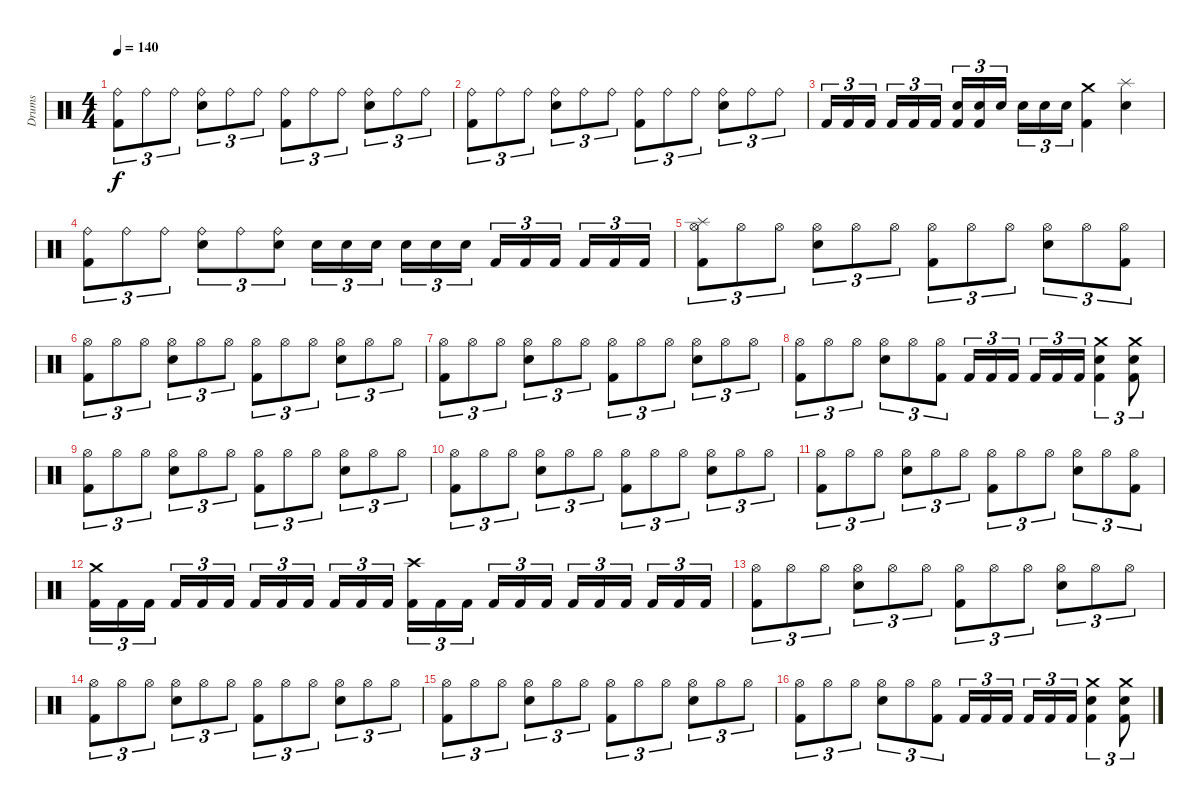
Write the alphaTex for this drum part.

\track ("Drums" "Drums") {instrument percussion}
\staff {score}
\articulation defaults
\ts (4 4)
\tempo 140
\clef neutral
\ks c
("Ride (bell)" "Kick (hit) 2").8{tu (3 2) dy f} "Ride (bell)".8{tu (3 2)} "Ride (bell)".8{tu (3 2)} ("Ride (bell)" "Electric Snare (hit)").8{tu (3 2)} "Ride (bell)".8{tu (3 2)} "Ride (bell)".8{tu (3 2)} ("Ride (bell)" "Kick (hit) 2").8{tu (3 2)} "Ride (bell)".8{tu (3 2)} "Ride (bell)".8{tu (3 2)} ("Ride (bell)" "Electric Snare (hit)").8{tu (3 2)} "Ride (bell)".8{tu (3 2)} "Ride (bell)".8{tu (3 2)} |
("Ride (bell)" "Kick (hit) 2").8{tu (3 2)} "Ride (bell)".8{tu (3 2)} "Ride (bell)".8{tu (3 2)} ("Ride (bell)" "Electric Snare (hit)").8{tu (3 2)} "Ride (bell)".8{tu (3 2)} "Ride (bell)".8{tu (3 2)} ("Ride (bell)" "Kick (hit) 2").8{tu (3 2)} "Ride (bell)".8{tu (3 2)} "Ride (bell)".8{tu (3 2)} ("Ride (bell)" "Electric Snare (hit)").8{tu (3 2)} "Ride (bell)".8{tu (3 2)} "Ride (bell)".8{tu (3 2)} |
"Kick (hit) 2".16{tu (3 2)} "Kick (hit) 2".16{tu (3 2)} "Kick (hit) 2".16{tu (3 2)} "Kick (hit) 2".16{tu (3 2)} "Kick (hit) 2".16{tu (3 2)} "Kick (hit) 2".16{tu (3 2)} ("Electric Snare (hit)" "Kick (hit) 2").16{tu (3 2)} ("Electric Snare (hit)" "Kick (hit) 2").16{tu (3 2)} "Electric Snare (hit)".16{tu (3 2)} "Electric Snare (hit)".16{tu (3 2)} "Electric Snare (hit)".16{tu (3 2)} "Electric Snare (hit)".16{tu (3 2)} ("Crash medium (hit)" "Kick (hit) 2").4 ("Splash (hit)" "Electric Snare (hit)").4 |
("Ride (bell)" "Kick (hit) 2").8{tu (3 2)} "Ride (bell)".8{tu (3 2)} "Ride (bell)".8{tu (3 2)} ("Ride (bell)" "Electric Snare (hit)").8{tu (3 2)} "Ride (bell)".8{tu (3 2)} ("Ride (bell)" "Electric Snare (hit)").8{tu (3 2)} "Electric Snare (hit)".16{tu (3 2)} "Electric Snare (hit)".16{tu (3 2)} "Electric Snare (hit)".16{tu (3 2)} "Electric Snare (hit)".16{tu (3 2)} "Electric Snare (hit)".16{tu (3 2)} "Electric Snare (hit)".16{tu (3 2)} "Kick (hit) 2".16{tu (3 2)} "Kick (hit) 2".16{tu (3 2)} "Kick (hit) 2".16{tu (3 2)} "Kick (hit) 2".16{tu (3 2)} "Kick (hit) 2".16{tu (3 2)} "Kick (hit) 2".16{tu (3 2)} |
("Splash (hit)" "Hi-Hat (open)" "Kick (hit) 2").8{tu (3 2)} "Hi-Hat (open)".8{tu (3 2)} "Hi-Hat (open)".8{tu (3 2)} ("Hi-Hat (open)" "Electric Snare (hit)").8{tu (3 2)} "Hi-Hat (open)".8{tu (3 2)} "Hi-Hat (open)".8{tu (3 2)} ("Hi-Hat (open)" "Kick (hit) 2").8{tu (3 2)} "Hi-Hat (open)".8{tu (3 2)} "Hi-Hat (open)".8{tu (3 2)} ("Hi-Hat (open)" "Electric Snare (hit)").8{tu (3 2)} "Hi-Hat (open)".8{tu (3 2)} ("Hi-Hat (open)" "Kick (hit) 2").8{tu (3 2)} |
("Hi-Hat (open)" "Kick (hit) 2").8{tu (3 2)} "Hi-Hat (open)".8{tu (3 2)} "Hi-Hat (open)".8{tu (3 2)} ("Hi-Hat (open)" "Electric Snare (hit)").8{tu (3 2)} "Hi-Hat (open)".8{tu (3 2)} "Hi-Hat (open)".8{tu (3 2)} ("Hi-Hat (open)" "Kick (hit) 2").8{tu (3 2)} "Hi-Hat (open)".8{tu (3 2)} "Hi-Hat (open)".8{tu (3 2)} ("Hi-Hat (open)" "Electric Snare (hit)").8{tu (3 2)} "Hi-Hat (open)".8{tu (3 2)} "Hi-Hat (open)".8{tu (3 2)} |
("Hi-Hat (open)" "Kick (hit) 2").8{tu (3 2)} "Hi-Hat (open)".8{tu (3 2)} "Hi-Hat (open)".8{tu (3 2)} ("Hi-Hat (open)" "Electric Snare (hit)").8{tu (3 2)} "Hi-Hat (open)".8{tu (3 2)} "Hi-Hat (open)".8{tu (3 2)} ("Hi-Hat (open)" "Kick (hit) 2").8{tu (3 2)} "Hi-Hat (open)".8{tu (3 2)} "Hi-Hat (open)".8{tu (3 2)} ("Hi-Hat (open)" "Electric Snare (hit)").8{tu (3 2)} "Hi-Hat (open)".8{tu (3 2)} "Hi-Hat (open)".8{tu (3 2)} |
("Hi-Hat (open)" "Kick (hit) 2").8{tu (3 2)} "Hi-Hat (open)".8{tu (3 2)} "Hi-Hat (open)".8{tu (3 2)} ("Hi-Hat (open)" "Electric Snare (hit)").8{tu (3 2)} "Hi-Hat (open)".8{tu (3 2)} ("Hi-Hat (open)" "Kick (hit) 2").8{tu (3 2)} "Kick (hit) 2".16{tu (3 2)} "Kick (hit) 2".16{tu (3 2)} "Kick (hit) 2".16{tu (3 2)} "Kick (hit) 2".16{tu (3 2)} "Kick (hit) 2".16{tu (3 2)} "Kick (hit) 2".16{tu (3 2)} ("Crash medium (hit)" "Electric Snare (hit)" "Kick (hit) 2").4{tu (3 2)} ("Crash medium (hit)" "Electric Snare (hit)" "Kick (hit) 2").8{tu (3 2)} |
("Hi-Hat (open)" "Kick (hit) 2").8{tu (3 2)} "Hi-Hat (open)".8{tu (3 2)} "Hi-Hat (open)".8{tu (3 2)} ("Hi-Hat (open)" "Electric Snare (hit)").8{tu (3 2)} "Hi-Hat (open)".8{tu (3 2)} "Hi-Hat (open)".8{tu (3 2)} ("Hi-Hat (open)" "Kick (hit) 2").8{tu (3 2)} "Hi-Hat (open)".8{tu (3 2)} "Hi-Hat (open)".8{tu (3 2)} ("Hi-Hat (open)" "Electric Snare (hit)").8{tu (3 2)} "Hi-Hat (open)".8{tu (3 2)} "Hi-Hat (open)".8{tu (3 2)} |
("Hi-Hat (open)" "Kick (hit) 2").8{tu (3 2)} "Hi-Hat (open)".8{tu (3 2)} "Hi-Hat (open)".8{tu (3 2)} ("Hi-Hat (open)" "Electric Snare (hit)").8{tu (3 2)} "Hi-Hat (open)".8{tu (3 2)} "Hi-Hat (open)".8{tu (3 2)} ("Hi-Hat (open)" "Kick (hit) 2").8{tu (3 2)} "Hi-Hat (open)".8{tu (3 2)} "Hi-Hat (open)".8{tu (3 2)} ("Hi-Hat (open)" "Electric Snare (hit)").8{tu (3 2)} "Hi-Hat (open)".8{tu (3 2)} "Hi-Hat (open)".8{tu (3 2)} |
("Hi-Hat (open)" "Kick (hit) 2").8{tu (3 2)} "Hi-Hat (open)".8{tu (3 2)} "Hi-Hat (open)".8{tu (3 2)} ("Hi-Hat (open)" "Electric Snare (hit)").8{tu (3 2)} "Hi-Hat (open)".8{tu (3 2)} "Hi-Hat (open)".8{tu (3 2)} ("Hi-Hat (open)" "Kick (hit) 2").8{tu (3 2)} "Hi-Hat (open)".8{tu (3 2)} "Hi-Hat (open)".8{tu (3 2)} ("Hi-Hat (open)" "Electric Snare (hit)").8{tu (3 2)} "Hi-Hat (open)".8{tu (3 2)} ("Hi-Hat (open)" "Kick (hit) 2").8{tu (3 2)} |
("Crash medium (hit)" "Kick (hit) 2").16{tu (3 2)} "Kick (hit) 2".16{tu (3 2)} "Kick (hit) 2".16{tu (3 2)} "Kick (hit) 2".16{tu (3 2)} "Kick (hit) 2".16{tu (3 2)} "Kick (hit) 2".16{tu (3 2)} "Kick (hit) 2".16{tu (3 2)} "Kick (hit) 2".16{tu (3 2)} "Kick (hit) 2".16{tu (3 2)} "Kick (hit) 2".16{tu (3 2)} "Kick (hit) 2".16{tu (3 2)} "Kick (hit) 2".16{tu (3 2)} ("Crash high (hit)" "Kick (hit) 2").16{tu (3 2)} "Kick (hit) 2".16{tu (3 2)} "Kick (hit) 2".16{tu (3 2)} "Kick (hit) 2".16{tu (3 2)} "Kick (hit) 2".16{tu (3 2)} "Kick (hit) 2".16{tu (3 2)} "Kick (hit) 2".16{tu (3 2)} "Kick (hit) 2".16{tu (3 2)} "Kick (hit) 2".16{tu (3 2)} "Kick (hit) 2".16{tu (3 2)} "Kick (hit) 2".16{tu (3 2)} "Kick (hit) 2".16{tu (3 2)} |
("Hi-Hat (open)" "Kick (hit) 2").8{tu (3 2)} "Hi-Hat (open)".8{tu (3 2)} "Hi-Hat (open)".8{tu (3 2)} ("Hi-Hat (open)" "Electric Snare (hit)").8{tu (3 2)} "Hi-Hat (open)".8{tu (3 2)} "Hi-Hat (open)".8{tu (3 2)} ("Hi-Hat (open)" "Kick (hit) 2").8{tu (3 2)} "Hi-Hat (open)".8{tu (3 2)} "Hi-Hat (open)".8{tu (3 2)} ("Hi-Hat (open)" "Electric Snare (hit)").8{tu (3 2)} "Hi-Hat (open)".8{tu (3 2)} "Hi-Hat (open)".8{tu (3 2)} |
("Hi-Hat (open)" "Kick (hit) 2").8{tu (3 2)} "Hi-Hat (open)".8{tu (3 2)} "Hi-Hat (open)".8{tu (3 2)} ("Hi-Hat (open)" "Electric Snare (hit)").8{tu (3 2)} "Hi-Hat (open)".8{tu (3 2)} "Hi-Hat (open)".8{tu (3 2)} ("Hi-Hat (open)" "Kick (hit) 2").8{tu (3 2)} "Hi-Hat (open)".8{tu (3 2)} "Hi-Hat (open)".8{tu (3 2)} ("Hi-Hat (open)" "Electric Snare (hit)").8{tu (3 2)} "Hi-Hat (open)".8{tu (3 2)} "Hi-Hat (open)".8{tu (3 2)} |
("Hi-Hat (open)" "Kick (hit) 2").8{tu (3 2)} "Hi-Hat (open)".8{tu (3 2)} "Hi-Hat (open)".8{tu (3 2)} ("Hi-Hat (open)" "Electric Snare (hit)").8{tu (3 2)} "Hi-Hat (open)".8{tu (3 2)} "Hi-Hat (open)".8{tu (3 2)} ("Hi-Hat (open)" "Kick (hit) 2").8{tu (3 2)} "Hi-Hat (open)".8{tu (3 2)} "Hi-Hat (open)".8{tu (3 2)} ("Hi-Hat (open)" "Electric Snare (hit)").8{tu (3 2)} "Hi-Hat (open)".8{tu (3 2)} "Hi-Hat (open)".8{tu (3 2)} |
("Hi-Hat (open)" "Kick (hit) 2").8{tu (3 2)} "Hi-Hat (open)".8{tu (3 2)} "Hi-Hat (open)".8{tu (3 2)} ("Hi-Hat (open)" "Electric Snare (hit)").8{tu (3 2)} "Hi-Hat (open)".8{tu (3 2)} ("Hi-Hat (open)" "Kick (hit) 2").8{tu (3 2)} "Kick (hit) 2".16{tu (3 2)} "Kick (hit) 2".16{tu (3 2)} "Kick (hit) 2".16{tu (3 2)} "Kick (hit) 2".16{tu (3 2)} "Kick (hit) 2".16{tu (3 2)} "Kick (hit) 2".16{tu (3 2)} ("Crash medium (hit)" "Electric Snare (hit)" "Kick (hit) 2").4{tu (3 2)} ("Crash medium (hit)" "Electric Snare (hit)" "Kick (hit) 2").8{tu (3 2)}
